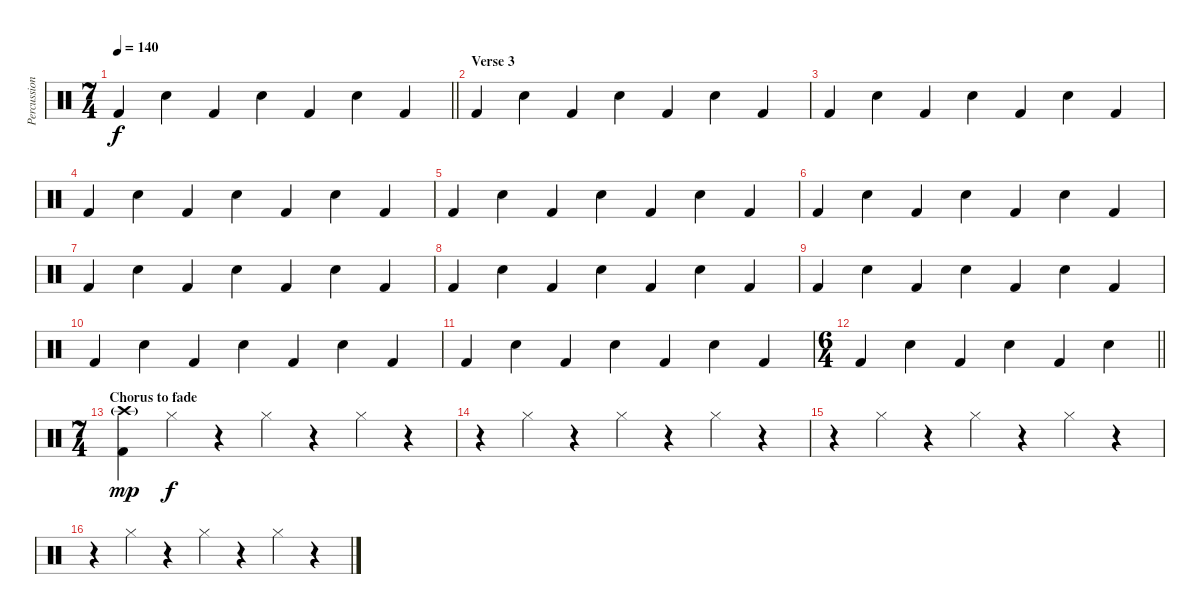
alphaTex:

\track ("Percussion" "Percussion") {instrument percussion}
\staff {score}
\articulation defaults
\ts (7 4)
\tempo 140
\clef neutral
\barLineRight lightlight
\ks c "Kick (hit) 2".4{dy f} "Snare (hit) 2".4 "Kick (hit) 2".4 "Snare (hit) 2".4 "Kick (hit) 2".4 "Snare (hit) 2".4 "Kick (hit) 2".4
|
\section ("" "Verse 3")
"Kick (hit) 2".4 "Snare (hit) 2".4 "Kick (hit) 2".4 "Snare (hit) 2".4 "Kick (hit) 2".4 "Snare (hit) 2".4 "Kick (hit) 2".4 |
"Kick (hit) 2".4 "Snare (hit) 2".4 "Kick (hit) 2".4 "Snare (hit) 2".4 "Kick (hit) 2".4 "Snare (hit) 2".4 "Kick (hit) 2".4 |
"Kick (hit) 2".4 "Snare (hit) 2".4 "Kick (hit) 2".4 "Snare (hit) 2".4 "Kick (hit) 2".4 "Snare (hit) 2".4 "Kick (hit) 2".4 |
"Kick (hit) 2".4 "Snare (hit) 2".4 "Kick (hit) 2".4 "Snare (hit) 2".4 "Kick (hit) 2".4 "Snare (hit) 2".4 "Kick (hit) 2".4 |
"Kick (hit) 2".4 "Snare (hit) 2".4 "Kick (hit) 2".4 "Snare (hit) 2".4 "Kick (hit) 2".4 "Snare (hit) 2".4 "Kick (hit) 2".4 |
"Kick (hit) 2".4 "Snare (hit) 2".4 "Kick (hit) 2".4 "Snare (hit) 2".4 "Kick (hit) 2".4 "Snare (hit) 2".4 "Kick (hit) 2".4 |
"Kick (hit) 2".4 "Snare (hit) 2".4 "Kick (hit) 2".4 "Snare (hit) 2".4 "Kick (hit) 2".4 "Snare (hit) 2".4 "Kick (hit) 2".4 |
"Kick (hit) 2".4 "Snare (hit) 2".4 "Kick (hit) 2".4 "Snare (hit) 2".4 "Kick (hit) 2".4 "Snare (hit) 2".4 "Kick (hit) 2".4 |
"Kick (hit) 2".4 "Snare (hit) 2".4 "Kick (hit) 2".4 "Snare (hit) 2".4 "Kick (hit) 2".4 "Snare (hit) 2".4 "Kick (hit) 2".4 |
"Kick (hit) 2".4 "Snare (hit) 2".4 "Kick (hit) 2".4 "Snare (hit) 2".4 "Kick (hit) 2".4 "Snare (hit) 2".4 "Kick (hit) 2".4 |
\ts (6 4)
\barLineRight lightlight "Kick (hit) 2".4 "Snare (hit) 2".4 "Kick (hit) 2".4 "Snare (hit) 2".4 "Kick (hit) 2".4 "Snare (hit) 2".4
|
\ts (7 4)
\section ("" "Chorus to fade")
("Crash high (hit)"{g} "Kick (hit) 2").4{dy mp} "Hi-Hat (closed)".4{dy f} r.4 "Hi-Hat (closed)".4 r.4 "Hi-Hat (closed)".4 r.4 |
r.4 "Hi-Hat (closed)".4 r.4 "Hi-Hat (closed)".4 r.4 "Hi-Hat (closed)".4 r.4 |
r.4 "Hi-Hat (closed)".4 r.4 "Hi-Hat (closed)".4 r.4 "Hi-Hat (closed)".4 r.4 |
r.4 "Hi-Hat (closed)".4 r.4 "Hi-Hat (closed)".4 r.4 "Hi-Hat (closed)".4 r.4
